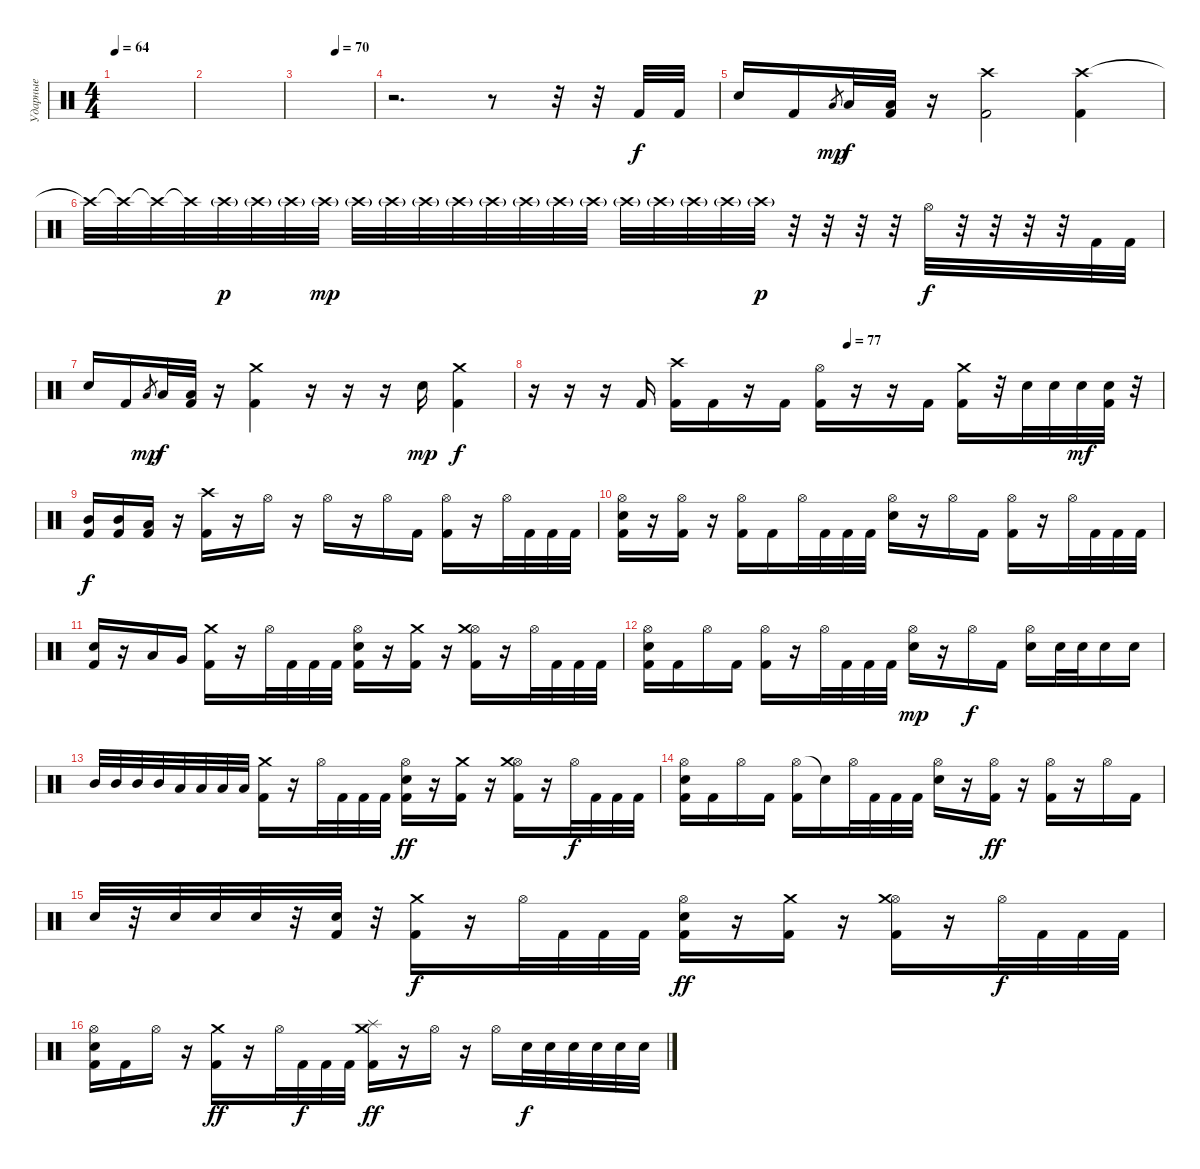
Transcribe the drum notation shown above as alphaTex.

\track ("Ударные" "Ударные") {instrument percussion}
\staff {score}
\articulation defaults
\ts (4 4)
\tempo 64
\clef neutral
\ks c
|
|
\tempo (70 0.5)
|
r.2{d} r.8 r.32 r.32 "Kick (hit) 2".32 "Kick (hit) 2".32 |
"Electric Snare (hit)".16 "Kick (hit) 2".16 "Low Tom (hit)".8{gr dy mp} "Low Tom (hit)".32{dy f} ("Low Floor Tom (hit)" "Kick (hit) 2").32 r.16 ("Crash high (hit)" "Kick (hit) 2").2 ("Crash high (hit)" "Kick (hit) 2").4 |
"Crash high (hit)"{t}.32 "Crash high (hit)"{t}.32 "Crash high (hit)"{t}.32 "Crash high (hit)"{t}.32 "Crash high (hit)"{g}.32{dy p} "Crash high (hit)"{g}.32 "Crash high (hit)"{g}.32 "Crash high (hit)"{g}.32{dy mp} "Crash high (hit)"{g}.32 "Crash high (hit)"{g}.32 "Crash high (hit)"{g}.32 "Crash high (hit)"{g}.32 "Crash high (hit)"{g}.32 "Crash high (hit)"{g}.32 "Crash high (hit)"{g}.32 "Crash high (hit)"{g}.32 "Crash high (hit)"{g}.32 "Crash high (hit)"{g}.32 "Crash high (hit)"{g}.32 "Crash high (hit)"{g}.32 "Crash high (hit)"{g}.32{dy p} r.32 r.32 r.32 r.32 "Hi-Hat (open)".32{dy f} r.32 r.32 r.32 r.32 "Kick (hit) 2".32 "Kick (hit) 2".32 |
"Electric Snare (hit)".16 "Kick (hit) 2".16 "Low Tom (hit)".8{gr dy mp} "Low Tom (hit)".32{dy f} ("Low Floor Tom (hit)" "Kick (hit) 2").32 r.16 ("Crash medium (hit)" "Kick (hit) 2").4 r.16 r.16 r.16 "Electric Snare (hit)".16{dy mp} ("Crash medium (hit)" "Kick (hit) 2").4{dy f} |
\tempo (77 0.5)
r.16 r.16 r.16 "Kick (hit) 2".16 ("Crash high (hit)" "Kick (hit) 2").16 "Kick (hit) 2".16 r.16 "Kick (hit) 2".16 ("Hi-Hat (open)" "Kick (hit) 2").16 r.16 r.16 "Kick (hit) 2".16 ("Crash medium (hit)" "Kick (hit) 2").16 r.32 "Electric Snare (hit)".32 "Electric Snare (hit)".32 "Electric Snare (hit)".32{dy mf} ("Electric Snare (hit)" "Kick (hit) 2").32 r.32 |
("Mid Tom (hit)" "Kick (hit) 2").16{dy f} ("Mid Tom (hit)" "Kick (hit) 2").16 ("Low Tom (hit)" "Kick (hit) 2").16 r.16 ("Crash high (hit)" "Kick (hit) 2").16 r.16 "Hi-Hat (open)".16 r.16 "Hi-Hat (open)".16 r.16 "Hi-Hat (open)".16 "Kick (hit) 2".16 ("Hi-Hat (open)" "Kick (hit) 2").16 r.16 "Hi-Hat (open)".32 "Kick (hit) 2".32 "Kick (hit) 2".32 "Kick (hit) 2".32 |
("Hi-Hat (open)" "Electric Snare (hit)" "Kick (hit) 2").16 r.16 ("Hi-Hat (open)" "Kick (hit) 2").16 r.16 ("Hi-Hat (open)" "Kick (hit) 2").16 "Kick (hit) 2".16 "Hi-Hat (open)".32 "Kick (hit) 2".32 "Kick (hit) 2".32 "Kick (hit) 2".32 ("Hi-Hat (open)" "Electric Snare (hit)").16 r.16 "Hi-Hat (open)".16 "Kick (hit) 2".16 ("Hi-Hat (open)" "Kick (hit) 2").16 r.16 "Hi-Hat (open)".32 "Kick (hit) 2".32 "Kick (hit) 2".32 "Kick (hit) 2".32 |
("Electric Snare (hit)" "Kick (hit) 2").16 r.16 "Low Tom (hit)".16 "Very Low Tom (hit)".16 ("Crash medium (hit)" "Kick (hit) 2").16 r.16 "Hi-Hat (open)".32 "Kick (hit) 2".32 "Kick (hit) 2".32 "Kick (hit) 2".32 ("Hi-Hat (open)" "Electric Snare (hit)" "Kick (hit) 2").16 r.16 ("Crash medium (hit)" "Kick (hit) 2").16 r.16 ("Hi-Hat (open)" "Crash medium (hit)" "Kick (hit) 2").16 r.16 "Hi-Hat (open)".32 "Kick (hit) 2".32 "Kick (hit) 2".32 "Kick (hit) 2".32 |
("Hi-Hat (open)" "Electric Snare (hit)" "Kick (hit) 2").16 "Kick (hit) 2".16 "Hi-Hat (open)".16 "Kick (hit) 2".16 ("Hi-Hat (open)" "Kick (hit) 2").16 r.16 "Hi-Hat (open)".32 "Kick (hit) 2".32 "Kick (hit) 2".32 "Kick (hit) 2".32 ("Hi-Hat (open)" "Electric Snare (hit)").16{dy mp} r.16 "Hi-Hat (open)".16{dy f} "Kick (hit) 2".16 ("Hi-Hat (open)" "Electric Snare (hit)").16 "Electric Snare (hit)".32 "Electric Snare (hit)".32 "Electric Snare (hit)".16 "Electric Snare (hit)".16 |
"Mid Tom (hit)".32 "Mid Tom (hit)".32 "Mid Tom (hit)".32 "Mid Tom (hit)".32 "Low Tom (hit)".32 "Low Tom (hit)".32 "Low Tom (hit)".32 "Low Tom (hit)".32 ("Crash medium (hit)" "Kick (hit) 2").16 r.16 "Hi-Hat (open)".32 "Kick (hit) 2".32 "Kick (hit) 2".32 "Kick (hit) 2".32 ("Hi-Hat (open)" "Electric Snare (hit)" "Kick (hit) 2").16{dy ff} r.16 ("Crash medium (hit)" "Kick (hit) 2").16 r.16 ("Hi-Hat (open)" "Crash medium (hit)" "Kick (hit) 2").16 r.16 "Hi-Hat (open)".32{dy f} "Kick (hit) 2".32 "Kick (hit) 2".32 "Kick (hit) 2".32 |
("Hi-Hat (open)" "Electric Snare (hit)" "Kick (hit) 2").16 "Kick (hit) 2".16 "Hi-Hat (open)".16 "Kick (hit) 2".16 ("Hi-Hat (open)" "Kick (hit) 2").16 "Snare (hit)"{t}.16 "Hi-Hat (open)".32 "Kick (hit) 2".32 "Kick (hit) 2".32 "Kick (hit) 2".32 ("Hi-Hat (open)" "Electric Snare (hit)").16 r.16 ("Hi-Hat (open)" "Kick (hit) 2").16{dy ff} r.16 ("Hi-Hat (open)" "Kick (hit) 2").16 r.16 "Hi-Hat (open)".16 "Kick (hit) 2".16 |
"Electric Snare (hit)".32 r.32 "Electric Snare (hit)".32 "Electric Snare (hit)".32 "Electric Snare (hit)".32 r.32 ("Electric Snare (hit)" "Kick (hit) 2").32 r.32 ("Crash medium (hit)" "Kick (hit) 2").16{dy f} r.16 "Hi-Hat (open)".32 "Kick (hit) 2".32 "Kick (hit) 2".32 "Kick (hit) 2".32 ("Hi-Hat (open)" "Electric Snare (hit)" "Kick (hit) 2").16{dy ff} r.16 ("Crash medium (hit)" "Kick (hit) 2").16 r.16 ("Hi-Hat (open)" "Crash medium (hit)" "Kick (hit) 2").16 r.16 "Hi-Hat (open)".32{dy f} "Kick (hit) 2".32 "Kick (hit) 2".32 "Kick (hit) 2".32 |
("Hi-Hat (open)" "Electric Snare (hit)" "Kick (hit) 2").16 "Kick (hit) 2".16 "Hi-Hat (open)".16 r.16 ("Crash medium (hit)" "Kick (hit) 2").16{dy ff} r.16 "Hi-Hat (open)".32 "Kick (hit) 2".32{dy f} "Kick (hit) 2".32 "Kick (hit) 2".32 ("Splash (hit)" "Crash medium (hit)" "Kick (hit) 2").16{dy ff} r.16 "Hi-Hat (open)".16 r.16 "Hi-Hat (open)".16 "Electric Snare (hit)".32{dy f} "Electric Snare (hit)".32 "Electric Snare (hit)".32 "Electric Snare (hit)".32 "Electric Snare (hit)".32 "Electric Snare (hit)".32
